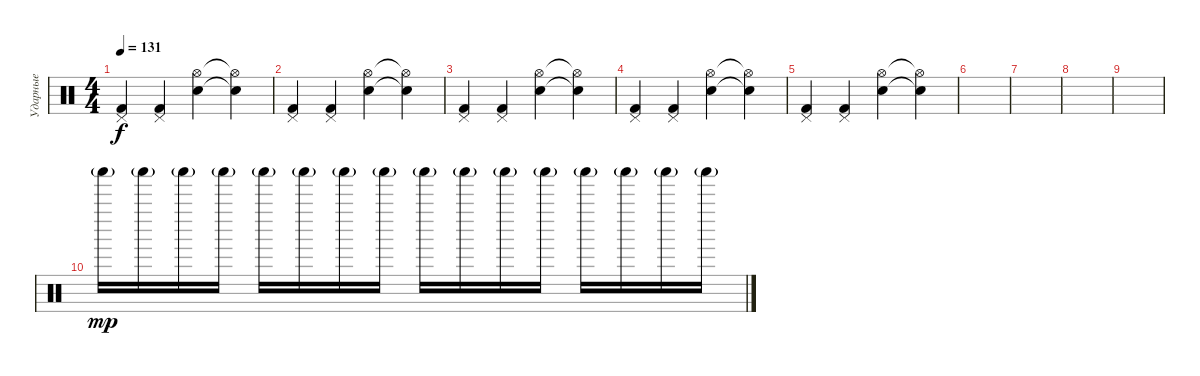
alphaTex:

\track ("Ударные" "Ударные") {instrument percussion}
\staff {score}
\articulation defaults
\ts (4 4)
\tempo 131
\clef neutral
\ks c
("Kick (hit) 2" "Pedal Hi-Hat (hit)").4{dy f} ("Kick (hit) 2" "Pedal Hi-Hat (hit)").4 ("Hi-Hat (open)" "Snare (hit) 2").4 ("Hi-Hat (open)"{t} "Snare (hit) 2"{t}).4 |
("Kick (hit) 2" "Pedal Hi-Hat (hit)").4 ("Kick (hit) 2" "Pedal Hi-Hat (hit)").4 ("Hi-Hat (open)" "Snare (hit) 2").4 ("Hi-Hat (open)"{t} "Snare (hit) 2"{t}).4 |
("Kick (hit) 2" "Pedal Hi-Hat (hit)").4 ("Kick (hit) 2" "Pedal Hi-Hat (hit)").4 ("Hi-Hat (open)" "Snare (hit) 2").4 ("Hi-Hat (open)"{t} "Snare (hit) 2"{t}).4 |
("Kick (hit) 2" "Pedal Hi-Hat (hit)").4 ("Kick (hit) 2" "Pedal Hi-Hat (hit)").4 ("Hi-Hat (open)" "Snare (hit) 2").4 ("Hi-Hat (open)"{t} "Snare (hit) 2"{t}).4 |
("Kick (hit) 2" "Pedal Hi-Hat (hit)").4 ("Kick (hit) 2" "Pedal Hi-Hat (hit)").4 ("Hi-Hat (open)" "Snare (hit) 2").4 ("Hi-Hat (open)"{t} "Snare (hit) 2"{t}).4 |
|
|
|
|
"Shaker (hit)"{g}.16{dy mp} "Shaker (hit)"{g}.16 "Shaker (hit)"{g}.16 "Shaker (hit)"{g}.16 "Shaker (hit)"{g}.16 "Shaker (hit)"{g}.16 "Shaker (hit)"{g}.16 "Shaker (hit)"{g}.16 "Shaker (hit)"{g}.16 "Shaker (hit)"{g}.16 "Shaker (hit)"{g}.16 "Shaker (hit)"{g}.16 "Shaker (hit)"{g}.16 "Shaker (hit)"{g}.16 "Shaker (hit)"{g}.16 "Shaker (hit)"{g}.16
